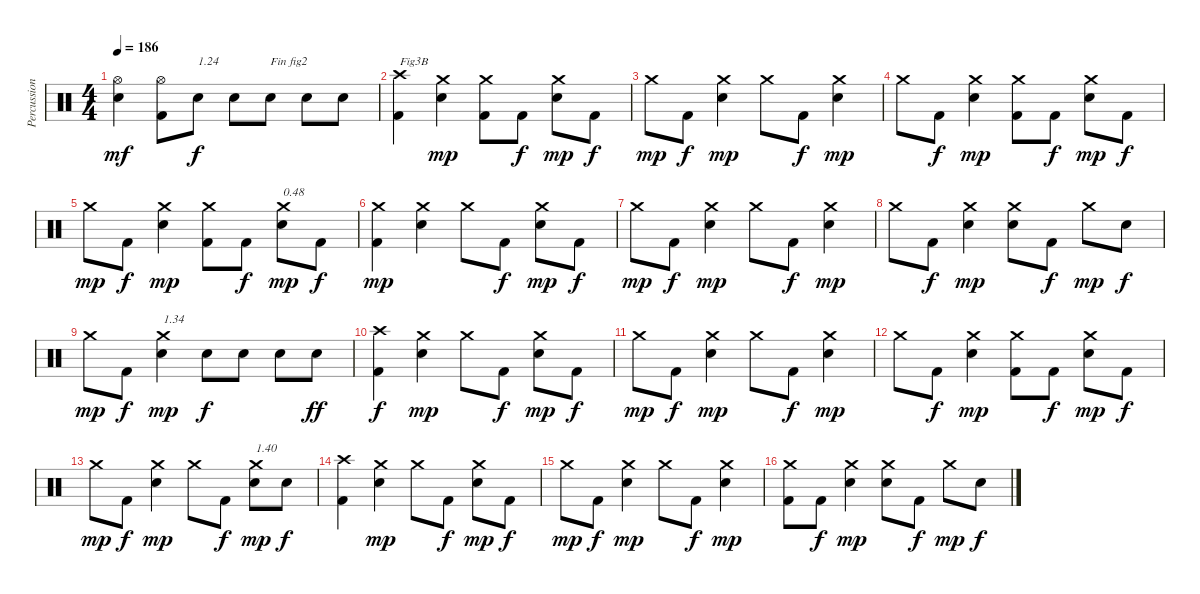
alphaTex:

\track ("Percussions" "Percussion") {instrument percussion}
\staff {score}
\articulation defaults
\ts (4 4)
\tempo 186
\clef neutral
\ks c
("Electric Snare (hit)" "Hi-Hat (open)").4{dy mf} ("Kick (hit) 2" "Hi-Hat (open)").8 "Electric Snare (hit)".8{txt "1.24" dy f} "Electric Snare (hit)".8 "Electric Snare (hit)".8{txt "Fin fig2"} "Electric Snare (hit)".8 "Electric Snare (hit)".8 |
("Kick (hit) 2" "Crash high (hit)").4{txt "Fig3B"} ("Electric Snare (hit)" "Crash medium (hit)").4{dy mp} ("Kick (hit) 2" "Crash medium (hit)").8 "Kick (hit) 2".8{dy f} ("Electric Snare (hit)" "Crash medium (hit)").8{dy mp} "Kick (hit) 2".8{dy f} |
"Crash medium (hit)".8{dy mp} "Kick (hit) 2".8{dy f} ("Electric Snare (hit)" "Crash medium (hit)").4{dy mp} "Crash medium (hit)".8 "Kick (hit) 2".8{dy f} ("Electric Snare (hit)" "Crash medium (hit)").4{dy mp} |
"Crash medium (hit)".8 "Kick (hit) 2".8{dy f} ("Electric Snare (hit)" "Crash medium (hit)").4{dy mp} ("Kick (hit) 2" "Crash medium (hit)").8 "Kick (hit) 2".8{dy f} ("Electric Snare (hit)" "Crash medium (hit)").8{dy mp} "Kick (hit) 2".8{dy f} |
"Crash medium (hit)".8{dy mp} "Kick (hit) 2".8{dy f} ("Electric Snare (hit)" "Crash medium (hit)").4{dy mp} ("Kick (hit) 2" "Crash medium (hit)").8 "Kick (hit) 2".8{dy f} ("Electric Snare (hit)" "Crash medium (hit)").8{txt "0.48" dy mp} "Kick (hit) 2".8{dy f} |
("Kick (hit) 2" "Crash medium (hit)").4{dy mp} ("Electric Snare (hit)" "Crash medium (hit)").4 "Crash medium (hit)".8 "Kick (hit) 2".8{dy f} ("Electric Snare (hit)" "Crash medium (hit)").8{dy mp} "Kick (hit) 2".8{dy f} |
"Crash medium (hit)".8{dy mp} "Kick (hit) 2".8{dy f} ("Electric Snare (hit)" "Crash medium (hit)").4{dy mp} "Crash medium (hit)".8 "Kick (hit) 2".8{dy f} ("Electric Snare (hit)" "Crash medium (hit)").4{dy mp} |
"Crash medium (hit)".8 "Kick (hit) 2".8{dy f} ("Electric Snare (hit)" "Crash medium (hit)").4{dy mp} ("Electric Snare (hit)" "Crash medium (hit)").8 "Kick (hit) 2".8{dy f} "Crash medium (hit)".8{dy mp} "Electric Snare (hit)".8{dy f} |
"Crash medium (hit)".8{dy mp} "Kick (hit) 2".8{dy f} ("Electric Snare (hit)" "Crash medium (hit)").4{txt "1.34" dy mp} "Electric Snare (hit)".8{dy f} "Electric Snare (hit)".8 "Electric Snare (hit)".8 "Electric Snare (hit)".8{dy ff} |
("Kick (hit) 2" "Crash high (hit)").4{dy f} ("Electric Snare (hit)" "Crash medium (hit)").4{dy mp} "Crash medium (hit)".8 "Kick (hit) 2".8{dy f} ("Electric Snare (hit)" "Crash medium (hit)").8{dy mp} "Kick (hit) 2".8{dy f} |
"Crash medium (hit)".8{dy mp} "Kick (hit) 2".8{dy f} ("Electric Snare (hit)" "Crash medium (hit)").4{dy mp} "Crash medium (hit)".8 "Kick (hit) 2".8{dy f} ("Electric Snare (hit)" "Crash medium (hit)").4{dy mp} |
"Crash medium (hit)".8 "Kick (hit) 2".8{dy f} ("Electric Snare (hit)" "Crash medium (hit)").4{dy mp} ("Kick (hit) 2" "Crash medium (hit)").8 "Kick (hit) 2".8{dy f} ("Electric Snare (hit)" "Crash medium (hit)").8{dy mp} "Kick (hit) 2".8{dy f} |
"Crash medium (hit)".8{dy mp} "Kick (hit) 2".8{dy f} ("Electric Snare (hit)" "Crash medium (hit)").4{dy mp} "Crash medium (hit)".8 "Kick (hit) 2".8{dy f} ("Electric Snare (hit)" "Crash medium (hit)").8{txt "1.40" dy mp} "Electric Snare (hit)".8{dy f} |
("Kick (hit) 2" "Crash high (hit)").4 ("Electric Snare (hit)" "Crash medium (hit)").4{dy mp} "Crash medium (hit)".8 "Kick (hit) 2".8{dy f} ("Electric Snare (hit)" "Crash medium (hit)").8{dy mp} "Kick (hit) 2".8{dy f} |
"Crash medium (hit)".8{dy mp} "Kick (hit) 2".8{dy f} ("Electric Snare (hit)" "Crash medium (hit)").4{dy mp} "Crash medium (hit)".8 "Kick (hit) 2".8{dy f} ("Electric Snare (hit)" "Crash medium (hit)").4{dy mp} |
("Kick (hit) 2" "Crash medium (hit)").8 "Kick (hit) 2".8{dy f} ("Electric Snare (hit)" "Crash medium (hit)").4{dy mp} ("Electric Snare (hit)" "Crash medium (hit)").8 "Kick (hit) 2".8{dy f} "Crash medium (hit)".8{dy mp} "Electric Snare (hit)".8{dy f}
